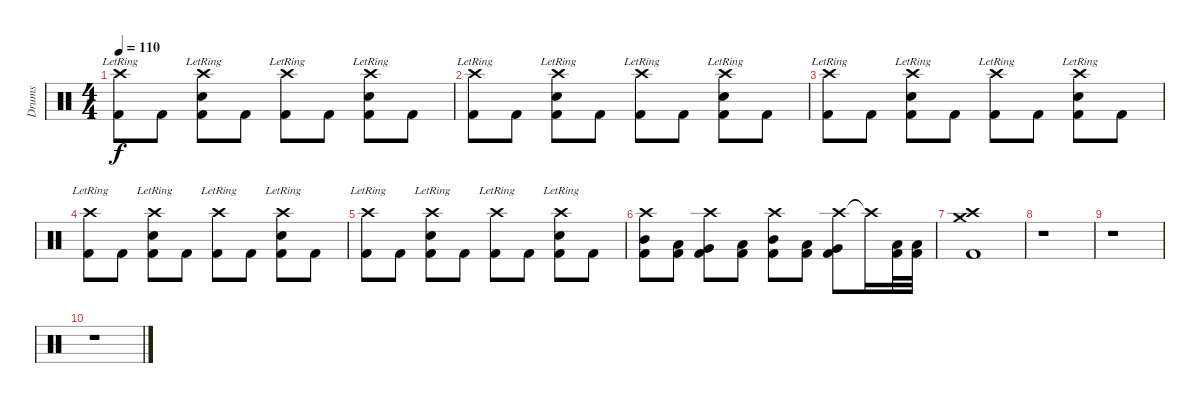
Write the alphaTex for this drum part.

\track ("Drums" "Drums") {instrument percussion}
\staff {score}
\articulation defaults
\ts (4 4)
\tempo 110
\clef neutral
\ks c
("Crash high (hit)"{lr} "Kick (hit) 2").8{dy f} "Kick (hit) 2".8 ("Crash high (hit)"{lr} "Electric Snare (hit)" "Kick (hit) 2").8 "Kick (hit) 2".8 ("Crash high (hit)"{lr} "Kick (hit) 2").8 "Kick (hit) 2".8 ("Crash high (hit)"{lr} "Electric Snare (hit)" "Kick (hit) 2").8 "Kick (hit) 2".8 |
("Crash high (hit)"{lr} "Kick (hit) 2").8 "Kick (hit) 2".8 ("Crash high (hit)"{lr} "Electric Snare (hit)" "Kick (hit) 2").8 "Kick (hit) 2".8 ("Crash high (hit)"{lr} "Kick (hit) 2").8 "Kick (hit) 2".8 ("Crash high (hit)"{lr} "Electric Snare (hit)" "Kick (hit) 2").8 "Kick (hit) 2".8 |
("Crash high (hit)"{lr} "Kick (hit) 2").8 "Kick (hit) 2".8 ("Crash high (hit)"{lr} "Electric Snare (hit)" "Kick (hit) 2").8 "Kick (hit) 2".8 ("Crash high (hit)"{lr} "Kick (hit) 2").8 "Kick (hit) 2".8 ("Crash high (hit)"{lr} "Electric Snare (hit)" "Kick (hit) 2").8 "Kick (hit) 2".8 |
("Crash high (hit)"{lr} "Kick (hit) 2").8 "Kick (hit) 2".8 ("Crash high (hit)"{lr} "Electric Snare (hit)" "Kick (hit) 2").8 "Kick (hit) 2".8 ("Crash high (hit)"{lr} "Kick (hit) 2").8 "Kick (hit) 2".8 ("Crash high (hit)"{lr} "Electric Snare (hit)" "Kick (hit) 2").8 "Kick (hit) 2".8 |
("Crash high (hit)"{lr} "Kick (hit) 2").8 "Kick (hit) 2".8 ("Crash high (hit)"{lr} "Electric Snare (hit)" "Kick (hit) 2").8 "Kick (hit) 2".8 ("Crash high (hit)"{lr} "Kick (hit) 2").8 "Kick (hit) 2".8 ("Crash high (hit)"{lr} "Electric Snare (hit)" "Kick (hit) 2").8 "Kick (hit) 2".8 |
("Crash high (hit)" "Mid Tom (hit)" "Kick (hit) 2").8 ("Low Tom (hit)" "Kick (hit) 2").8 ("Crash high (hit)" "Very Low Tom (hit)" "Kick (hit) 2").8 ("Low Floor Tom (hit)" "Kick (hit) 2").8 ("Crash high (hit)" "Mid Tom (hit)" "Kick (hit) 2").8 ("Low Tom (hit)" "Kick (hit) 2").8 ("Crash high (hit)" "Very Low Tom (hit)" "Kick (hit) 2").8 "Crash high (hit)"{t}.16 ("Low Floor Tom (hit)" "Kick (hit) 2").32 ("Low Floor Tom (hit)" "Kick (hit) 2").32 |
("Crash medium (hit)" "Crash high (hit)" "Kick (hit) 2").1 |
r.1 |
r.1 |
r.1
